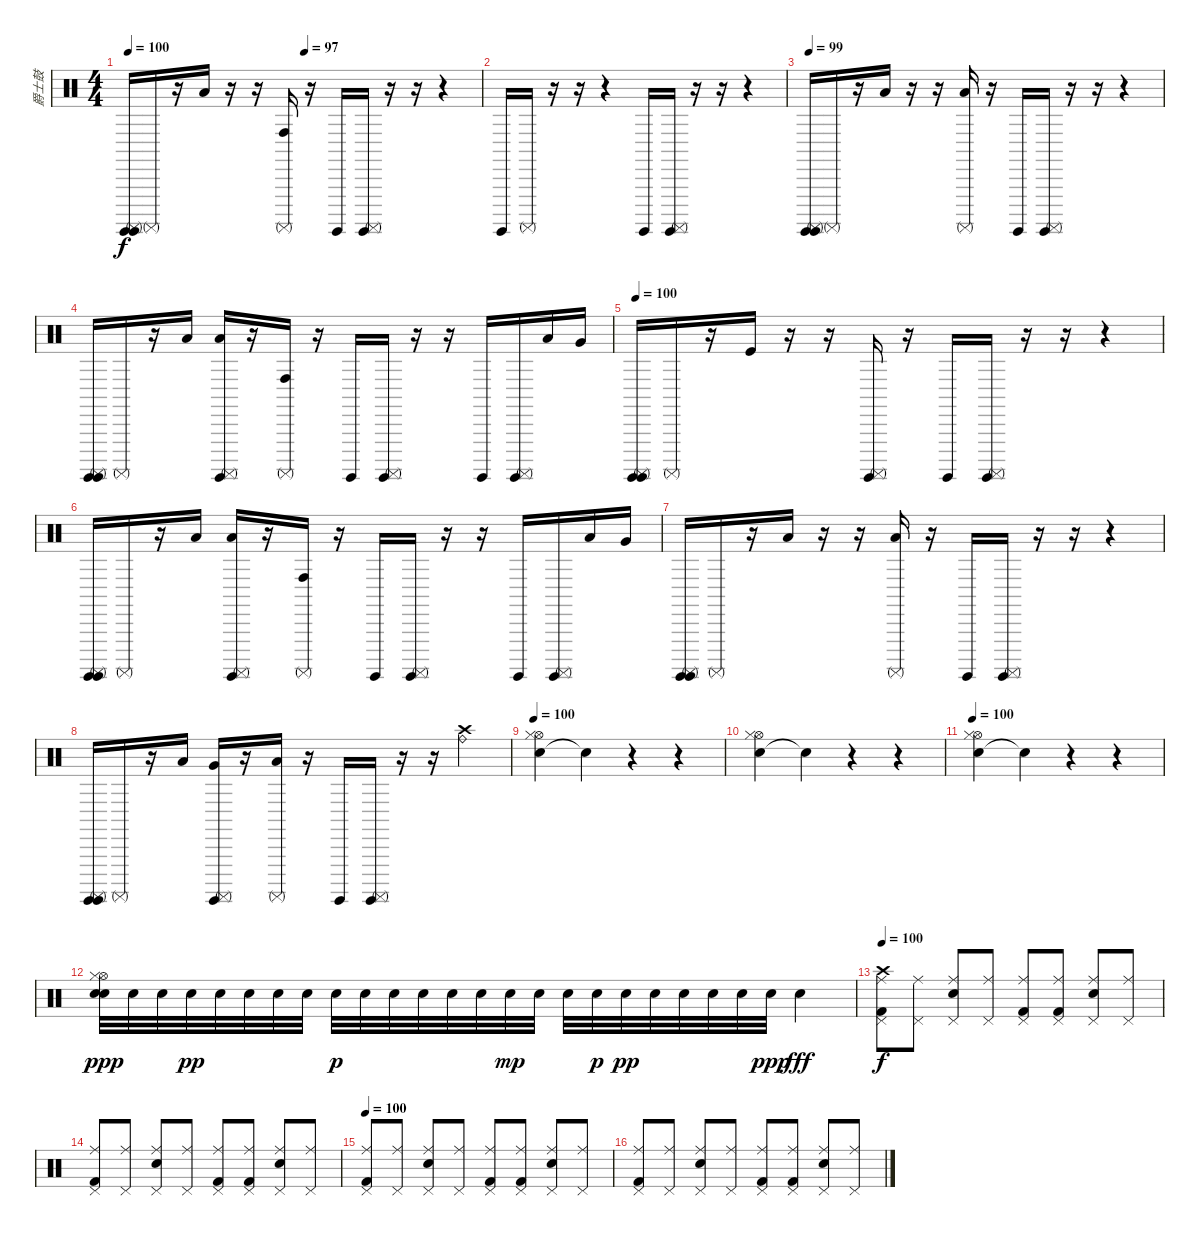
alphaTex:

\track ("爵士鼓" "爵士鼓") {instrument percussion}
\staff {score}
\articulation defaults
\ts (4 4)
\tempo 100
\tempo 95
\tempo (97 0.5)
\tempo 100
\clef neutral
\ks c
("Surdo (hit)" "Surdo (hit)" "Surdo (mute)").16{dy f balance 16} "Surdo (mute)".16 r.16 "Low Floor Tom (hit)".16 r.16 r.16 ("Conga high (hit)" "Surdo (mute)").16 r.16 "Surdo (hit)".16{balance 8} ("Surdo (hit)" "Surdo (mute)").16 r.16 r.16 r.4 |
"Surdo (hit)".16{balance 0} "Surdo (mute)".16 r.16 r.16 r.4 "Surdo (hit)".16 ("Surdo (hit)" "Surdo (mute)").16{balance 8} r.16 r.16 r.4 |
\tempo 99
("Surdo (hit)" "Surdo (hit)" "Surdo (mute)").16{balance 16} "Surdo (mute)".16 r.16 "Low Floor Tom (hit)".16 r.16 r.16 ("Low Floor Tom (hit)" "Surdo (mute)").16{balance 8} r.16 "Surdo (hit)".16 ("Surdo (hit)" "Surdo (mute)").16 r.16 r.16 r.4 |
("Surdo (hit)" "Surdo (hit)" "Surdo (mute)").16{balance 0} "Surdo (mute)".16 r.16 "Low Tom (hit)".16 ("Low Tom (hit)" "Surdo (hit)" "Surdo (mute)").16 r.16 ("Conga high (hit)" "Surdo (mute)").16 r.16{balance 8} "Surdo (hit)".16 ("Surdo (hit)" "Surdo (mute)").16 r.16 r.16 "Surdo (hit)".16 ("Surdo (hit)" "Surdo (mute)").16 "Low Tom (hit)".16 "Very Low Tom (hit)".16 |
\tempo 100
("Surdo (hit)" "Surdo (hit)" "Surdo (mute)").16{balance 16} "Surdo (mute)".16 r.16 "Kick (hit)".16 r.16 r.16 ("Surdo (hit)" "Surdo (mute)").16{balance 7} r.16 "Surdo (hit)".16 ("Surdo (hit)" "Surdo (mute)").16 r.16 r.16 r.4 |
("Surdo (hit)" "Surdo (hit)" "Surdo (mute)").16{balance 0} "Surdo (mute)".16 r.16 "Low Tom (hit)".16 ("Low Tom (hit)" "Surdo (hit)" "Surdo (mute)").16 r.16 ("Conga high (hit)" "Surdo (mute)").16 r.16{balance 8} "Surdo (hit)".16 ("Surdo (hit)" "Surdo (mute)").16 r.16 r.16 "Surdo (hit)".16 ("Surdo (hit)" "Surdo (mute)").16 "Low Tom (hit)".16 "Very Low Tom (hit)".16 |
("Surdo (hit)" "Surdo (hit)" "Surdo (mute)").16{balance 16} "Surdo (mute)".16 r.16 "Low Tom (hit)".16 r.16 r.16 ("Low Floor Tom (hit)" "Surdo (mute)").16{balance 16} r.16 "Surdo (hit)".16 ("Surdo (hit)" "Surdo (mute)").16 r.16 r.16 r.4 |
("Surdo (hit)" "Surdo (hit)" "Surdo (mute)").16{balance 6} "Surdo (mute)".16 r.16 "Low Tom (hit)".16 ("Very Low Tom (hit)" "Surdo (hit)" "Surdo (mute)").16 r.16 ("Low Floor Tom (hit)" "Surdo (mute)").16{balance 1} r.16 "Surdo (hit)".16 ("Surdo (hit)" "Surdo (mute)").16 r.16 r.16 ("Crash high (hit)" "Ride (bell)").4 |
\tempo 100
("Metronome (bell)" "Hi-Hat (open)" "Hi-Hat (closed)").4 "Snare (hit)"{t}.4 r.4 r.4 |
("Metronome (bell)" "Hi-Hat (open)" "Hi-Hat (closed)").4 "Snare (hit)"{t}.4 r.4 r.4 |
\tempo 100
("Metronome (bell)" "Hi-Hat (open)" "Hi-Hat (closed)").4 "Snare (hit)"{t}.4 r.4 r.4 |
("Metronome (bell)" "Electric Snare (hit)" "Hi-Hat (open)" "Hi-Hat (closed)").32{dy ppp} "Electric Snare (hit)".32 "Electric Snare (hit)".32 "Electric Snare (hit)".32{dy pp} "Electric Snare (hit)".32 "Electric Snare (hit)".32 "Electric Snare (hit)".32 "Electric Snare (hit)".32 "Electric Snare (hit)".32{dy p} "Electric Snare (hit)".32 "Electric Snare (hit)".32 "Electric Snare (hit)".32 "Electric Snare (hit)".32 "Electric Snare (hit)".32 "Electric Snare (hit)".32{dy mp} "Electric Snare (hit)".32 "Electric Snare (hit)".32 "Electric Snare (hit)".32{dy p} "Electric Snare (hit)".32{dy pp} "Electric Snare (hit)".32 "Electric Snare (hit)".32 "Electric Snare (hit)".32 "Electric Snare (hit)".32 "Electric Snare (hit)".32{dy ppp} "Snare (hit) 2".4{dy fff} |
\tempo 100
("Pedal Hi-Hat (hit)" "Ride (middle)" "Crash high (hit)" "Kick (hit) 2").8{dy f} ("Pedal Hi-Hat (hit)" "Ride (middle)").8 ("Pedal Hi-Hat (hit)" "Ride (middle)" "Snare (hit) 2").8 ("Pedal Hi-Hat (hit)" "Ride (middle)").8 ("Pedal Hi-Hat (hit)" "Ride (middle)" "Kick (hit) 2").8 ("Pedal Hi-Hat (hit)" "Ride (middle)" "Kick (hit) 2").8 ("Pedal Hi-Hat (hit)" "Ride (middle)" "Snare (hit) 2").8 ("Pedal Hi-Hat (hit)" "Ride (middle)").8 |
("Pedal Hi-Hat (hit)" "Ride (middle)" "Kick (hit) 2").8 ("Pedal Hi-Hat (hit)" "Ride (middle)").8 ("Pedal Hi-Hat (hit)" "Ride (middle)" "Snare (hit) 2").8 ("Pedal Hi-Hat (hit)" "Ride (middle)").8 ("Pedal Hi-Hat (hit)" "Ride (middle)" "Kick (hit) 2").8 ("Pedal Hi-Hat (hit)" "Ride (middle)" "Kick (hit) 2").8 ("Pedal Hi-Hat (hit)" "Ride (middle)" "Snare (hit) 2").8 ("Pedal Hi-Hat (hit)" "Ride (middle)").8 |
\tempo 100
("Pedal Hi-Hat (hit)" "Ride (middle)" "Kick (hit) 2").8 ("Pedal Hi-Hat (hit)" "Ride (middle)").8 ("Pedal Hi-Hat (hit)" "Ride (middle)" "Snare (hit) 2").8 ("Pedal Hi-Hat (hit)" "Ride (middle)").8 ("Pedal Hi-Hat (hit)" "Ride (middle)" "Kick (hit) 2").8 ("Pedal Hi-Hat (hit)" "Ride (middle)" "Kick (hit) 2").8 ("Pedal Hi-Hat (hit)" "Ride (middle)" "Snare (hit) 2").8 ("Pedal Hi-Hat (hit)" "Ride (middle)").8 |
("Pedal Hi-Hat (hit)" "Ride (middle)" "Kick (hit) 2").8 ("Pedal Hi-Hat (hit)" "Ride (middle)").8 ("Pedal Hi-Hat (hit)" "Ride (middle)" "Snare (hit) 2").8 ("Pedal Hi-Hat (hit)" "Ride (middle)").8 ("Pedal Hi-Hat (hit)" "Ride (middle)" "Kick (hit) 2").8 ("Pedal Hi-Hat (hit)" "Ride (middle)" "Kick (hit) 2").8 ("Pedal Hi-Hat (hit)" "Ride (middle)" "Snare (hit) 2").8 ("Pedal Hi-Hat (hit)" "Ride (middle)").8
